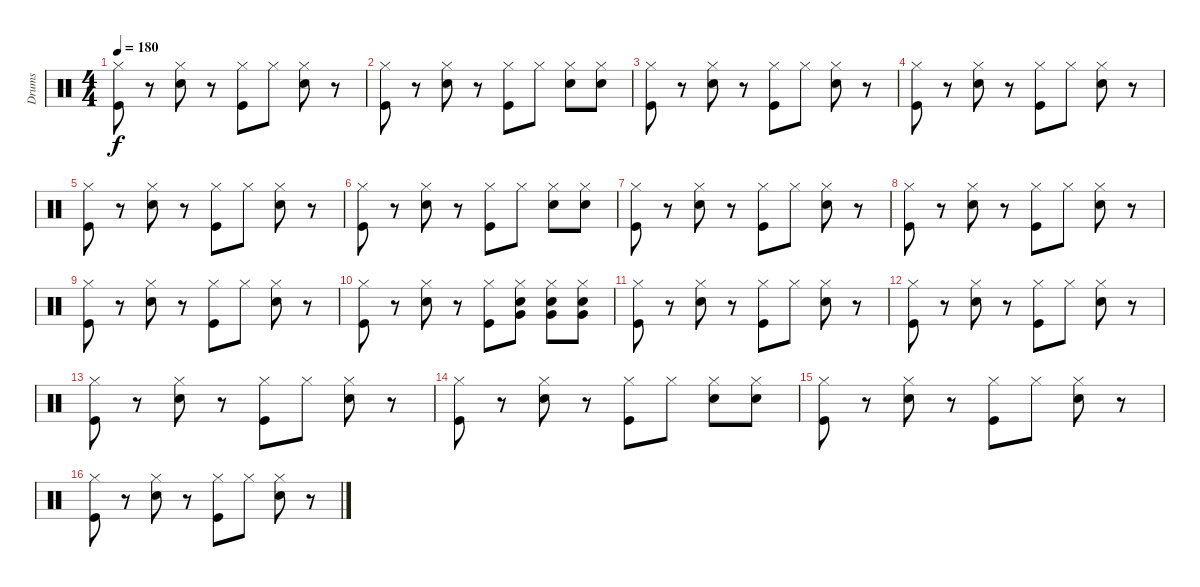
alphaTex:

\track ("Drums" "Drums") {instrument percussion}
\staff {score}
\articulation defaults
\ts (4 4)
\tempo 180
\clef neutral
\ks c
("Hi-Hat (closed)" "Kick (hit)").8{dy f} r.8 ("Hi-Hat (closed)" "Snare (hit) 2").8 r.8 ("Hi-Hat (closed)" "Kick (hit)").8 "Hi-Hat (closed)".8 ("Hi-Hat (closed)" "Snare (hit) 2").8 r.8 |
("Hi-Hat (closed)" "Kick (hit)").8 r.8 ("Hi-Hat (closed)" "Snare (hit) 2").8 r.8 ("Hi-Hat (closed)" "Kick (hit)").8 "Hi-Hat (closed)".8 ("Hi-Hat (closed)" "Snare (hit) 2").8 ("Hi-Hat (closed)" "Snare (hit) 2").8 |
("Hi-Hat (closed)" "Kick (hit)").8 r.8 ("Hi-Hat (closed)" "Snare (hit) 2").8 r.8 ("Hi-Hat (closed)" "Kick (hit)").8 "Hi-Hat (closed)".8 ("Hi-Hat (closed)" "Snare (hit) 2").8 r.8 |
("Hi-Hat (closed)" "Kick (hit)").8 r.8 ("Hi-Hat (closed)" "Snare (hit) 2").8 r.8 ("Hi-Hat (closed)" "Kick (hit)").8 "Hi-Hat (closed)".8 ("Hi-Hat (closed)" "Snare (hit) 2").8 r.8 |
("Hi-Hat (closed)" "Kick (hit)").8 r.8 ("Hi-Hat (closed)" "Snare (hit) 2").8 r.8 ("Hi-Hat (closed)" "Kick (hit)").8 "Hi-Hat (closed)".8 ("Hi-Hat (closed)" "Snare (hit) 2").8 r.8 |
("Hi-Hat (closed)" "Kick (hit)").8 r.8 ("Hi-Hat (closed)" "Snare (hit) 2").8 r.8 ("Hi-Hat (closed)" "Kick (hit)").8 "Hi-Hat (closed)".8 ("Hi-Hat (closed)" "Snare (hit) 2").8 ("Hi-Hat (closed)" "Snare (hit) 2").8 |
("Hi-Hat (closed)" "Kick (hit)").8 r.8 ("Hi-Hat (closed)" "Snare (hit) 2").8 r.8 ("Hi-Hat (closed)" "Kick (hit)").8 "Hi-Hat (closed)".8 ("Hi-Hat (closed)" "Snare (hit) 2").8 r.8 |
("Hi-Hat (closed)" "Kick (hit)").8 r.8 ("Hi-Hat (closed)" "Snare (hit) 2").8 r.8 ("Hi-Hat (closed)" "Kick (hit)").8 "Hi-Hat (closed)".8 ("Hi-Hat (closed)" "Snare (hit) 2").8 r.8 |
("Hi-Hat (closed)" "Kick (hit)").8 r.8 ("Hi-Hat (closed)" "Snare (hit) 2").8 r.8 ("Hi-Hat (closed)" "Kick (hit)").8 "Hi-Hat (closed)".8 ("Hi-Hat (closed)" "Snare (hit) 2").8 r.8 |
("Hi-Hat (closed)" "Kick (hit)").8 r.8 ("Hi-Hat (closed)" "Snare (hit) 2").8 r.8 ("Hi-Hat (closed)" "Kick (hit)").8 ("Hi-Hat (closed)" "Snare (hit) 2" "Very Low Tom (hit)").8 ("Hi-Hat (closed)" "Snare (hit) 2" "Very Low Tom (hit)").8 ("Hi-Hat (closed)" "Snare (hit) 2" "Very Low Tom (hit)").8 |
("Hi-Hat (closed)" "Kick (hit)").8 r.8 ("Hi-Hat (closed)" "Snare (hit) 2").8 r.8 ("Hi-Hat (closed)" "Kick (hit)").8 "Hi-Hat (closed)".8 ("Hi-Hat (closed)" "Snare (hit) 2").8 r.8 |
("Hi-Hat (closed)" "Kick (hit)").8 r.8 ("Hi-Hat (closed)" "Snare (hit) 2").8 r.8 ("Hi-Hat (closed)" "Kick (hit)").8 "Hi-Hat (closed)".8 ("Hi-Hat (closed)" "Snare (hit) 2").8 r.8 |
("Hi-Hat (closed)" "Kick (hit)").8 r.8 ("Hi-Hat (closed)" "Snare (hit) 2").8 r.8 ("Hi-Hat (closed)" "Kick (hit)").8 "Hi-Hat (closed)".8 ("Hi-Hat (closed)" "Snare (hit) 2").8 r.8 |
("Hi-Hat (closed)" "Kick (hit)").8 r.8 ("Hi-Hat (closed)" "Snare (hit) 2").8 r.8 ("Hi-Hat (closed)" "Kick (hit)").8 "Hi-Hat (closed)".8 ("Hi-Hat (closed)" "Snare (hit) 2").8 ("Hi-Hat (closed)" "Snare (hit) 2").8 |
("Hi-Hat (closed)" "Kick (hit)").8 r.8 ("Hi-Hat (closed)" "Snare (hit) 2").8 r.8 ("Hi-Hat (closed)" "Kick (hit)").8 "Hi-Hat (closed)".8 ("Hi-Hat (closed)" "Snare (hit) 2").8 r.8 |
("Hi-Hat (closed)" "Kick (hit)").8 r.8 ("Hi-Hat (closed)" "Snare (hit) 2").8 r.8 ("Hi-Hat (closed)" "Kick (hit)").8 "Hi-Hat (closed)".8 ("Hi-Hat (closed)" "Snare (hit) 2").8 r.8
